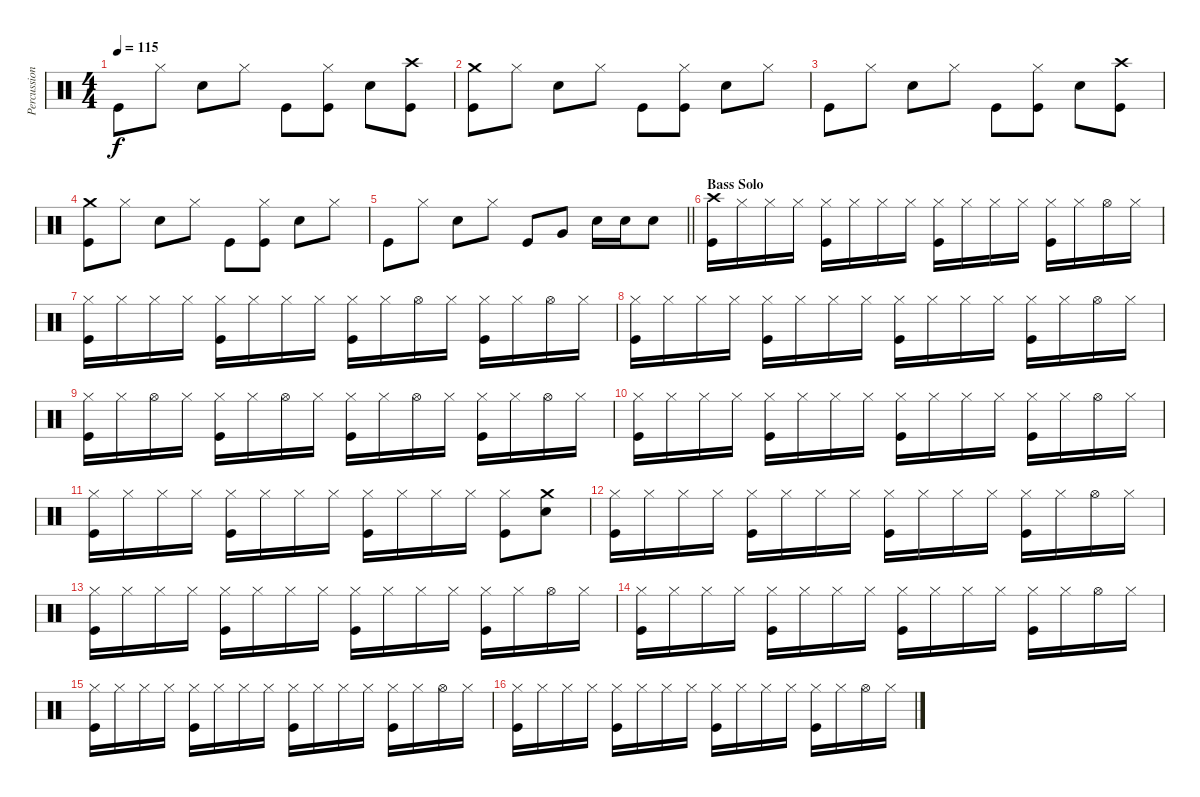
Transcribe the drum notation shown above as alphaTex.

\track ("Percussion" "Percussion") {instrument percussion}
\staff {score}
\articulation defaults
\ts (4 4)
\tempo 115
\clef neutral
\ks c "Kick (hit)".8{dy f} "Hi-Hat (closed)".8 "Snare (hit) 2".8 "Hi-Hat (closed)".8 "Kick (hit)".8
("Kick (hit)" "Hi-Hat (closed)").8 "Snare (hit) 2".8 ("Kick (hit)" "Crash high (hit)").8 |
("Crash medium (hit)" "Kick (hit)").8 "Hi-Hat (closed)".8 "Snare (hit) 2".8 "Hi-Hat (closed)".8 "Kick (hit)".8 ("Kick (hit)" "Hi-Hat (closed)").8 "Snare (hit) 2".8 "Hi-Hat (closed)".8 |
"Kick (hit)".8 "Hi-Hat (closed)".8 "Snare (hit) 2".8 "Hi-Hat (closed)".8 "Kick (hit)".8 ("Kick (hit)" "Hi-Hat (closed)").8 "Snare (hit) 2".8 ("Kick (hit)" "Crash high (hit)").8 |
("Crash medium (hit)" "Kick (hit)").8 "Hi-Hat (closed)".8 "Snare (hit) 2".8 "Hi-Hat (closed)".8 "Kick (hit)".8 ("Kick (hit)" "Hi-Hat (closed)").8 "Snare (hit) 2".8 "Hi-Hat (closed)".8 |
\barLineRight lightlight "Kick (hit)".8 "Hi-Hat (closed)".8 "Snare (hit) 2".8 "Hi-Hat (closed)".8 "Kick (hit)".8 "Very Low Tom (hit)".8 "Snare (hit) 2".16 "Snare (hit) 2".16 "Snare (hit) 2".8
|
\section ("" "Bass Solo")
("Kick (hit)" "Crash high (hit)").16 "Hi-Hat (closed)".16 "Hi-Hat (closed)".16 "Hi-Hat (closed)".16 ("Kick (hit)" "Hi-Hat (closed)").16 "Hi-Hat (closed)".16 "Hi-Hat (closed)".16 "Hi-Hat (closed)".16 ("Kick (hit)" "Hi-Hat (closed)").16 "Hi-Hat (closed)".16 "Hi-Hat (closed)".16 "Hi-Hat (closed)".16 ("Kick (hit)" "Hi-Hat (closed)").16 "Hi-Hat (closed)".16 "Hi-Hat (open)".16 "Hi-Hat (closed)".16 |
("Kick (hit)" "Hi-Hat (closed)").16 "Hi-Hat (closed)".16 "Hi-Hat (closed)".16 "Hi-Hat (closed)".16 ("Kick (hit)" "Hi-Hat (closed)").16 "Hi-Hat (closed)".16 "Hi-Hat (closed)".16 "Hi-Hat (closed)".16 ("Kick (hit)" "Hi-Hat (closed)").16 "Hi-Hat (closed)".16 "Hi-Hat (open)".16 "Hi-Hat (closed)".16 ("Kick (hit)" "Hi-Hat (closed)").16 "Hi-Hat (closed)".16 "Hi-Hat (open)".16 "Hi-Hat (closed)".16 |
("Kick (hit)" "Hi-Hat (closed)").16 "Hi-Hat (closed)".16 "Hi-Hat (closed)".16 "Hi-Hat (closed)".16 ("Kick (hit)" "Hi-Hat (closed)").16 "Hi-Hat (closed)".16 "Hi-Hat (closed)".16 "Hi-Hat (closed)".16 ("Kick (hit)" "Hi-Hat (closed)").16 "Hi-Hat (closed)".16 "Hi-Hat (closed)".16 "Hi-Hat (closed)".16 ("Kick (hit)" "Hi-Hat (closed)").16 "Hi-Hat (closed)".16 "Hi-Hat (open)".16 "Hi-Hat (closed)".16 |
("Kick (hit)" "Hi-Hat (closed)").16 "Hi-Hat (closed)".16 "Hi-Hat (open)".16 "Hi-Hat (closed)".16 ("Kick (hit)" "Hi-Hat (closed)").16 "Hi-Hat (closed)".16 "Hi-Hat (open)".16 "Hi-Hat (closed)".16 ("Kick (hit)" "Hi-Hat (closed)").16 "Hi-Hat (closed)".16 "Hi-Hat (open)".16 "Hi-Hat (closed)".16 ("Kick (hit)" "Hi-Hat (closed)").16 "Hi-Hat (closed)".16 "Hi-Hat (open)".16 "Hi-Hat (closed)".16 |
("Kick (hit)" "Hi-Hat (closed)").16 "Hi-Hat (closed)".16 "Hi-Hat (closed)".16 "Hi-Hat (closed)".16 ("Kick (hit)" "Hi-Hat (closed)").16 "Hi-Hat (closed)".16 "Hi-Hat (closed)".16 "Hi-Hat (closed)".16 ("Kick (hit)" "Hi-Hat (closed)").16 "Hi-Hat (closed)".16 "Hi-Hat (closed)".16 "Hi-Hat (closed)".16 ("Kick (hit)" "Hi-Hat (closed)").16 "Hi-Hat (closed)".16 "Hi-Hat (open)".16 "Hi-Hat (closed)".16 |
("Kick (hit)" "Hi-Hat (closed)").16 "Hi-Hat (closed)".16 "Hi-Hat (closed)".16 "Hi-Hat (closed)".16 ("Kick (hit)" "Hi-Hat (closed)").16 "Hi-Hat (closed)".16 "Hi-Hat (closed)".16 "Hi-Hat (closed)".16 ("Kick (hit)" "Hi-Hat (closed)").16 "Hi-Hat (closed)".16 "Hi-Hat (closed)".16 "Hi-Hat (closed)".16 ("Kick (hit)" "Hi-Hat (closed)").8 ("Crash medium (hit)" "Snare (hit) 2").8 |
("Kick (hit)" "Hi-Hat (closed)").16 "Hi-Hat (closed)".16 "Hi-Hat (closed)".16 "Hi-Hat (closed)".16 ("Kick (hit)" "Hi-Hat (closed)").16 "Hi-Hat (closed)".16 "Hi-Hat (closed)".16 "Hi-Hat (closed)".16 ("Kick (hit)" "Hi-Hat (closed)").16 "Hi-Hat (closed)".16 "Hi-Hat (closed)".16 "Hi-Hat (closed)".16 ("Kick (hit)" "Hi-Hat (closed)").16 "Hi-Hat (closed)".16 "Hi-Hat (open)".16 "Hi-Hat (closed)".16 |
("Kick (hit)" "Hi-Hat (closed)").16 "Hi-Hat (closed)".16 "Hi-Hat (closed)".16 "Hi-Hat (closed)".16 ("Kick (hit)" "Hi-Hat (closed)").16 "Hi-Hat (closed)".16 "Hi-Hat (closed)".16 "Hi-Hat (closed)".16 ("Kick (hit)" "Hi-Hat (closed)").16 "Hi-Hat (closed)".16 "Hi-Hat (closed)".16 "Hi-Hat (closed)".16 ("Kick (hit)" "Hi-Hat (closed)").16 "Hi-Hat (closed)".16 "Hi-Hat (open)".16 "Hi-Hat (closed)".16 |
("Kick (hit)" "Hi-Hat (closed)").16 "Hi-Hat (closed)".16 "Hi-Hat (closed)".16 "Hi-Hat (closed)".16 ("Kick (hit)" "Hi-Hat (closed)").16 "Hi-Hat (closed)".16 "Hi-Hat (closed)".16 "Hi-Hat (closed)".16 ("Kick (hit)" "Hi-Hat (closed)").16 "Hi-Hat (closed)".16 "Hi-Hat (closed)".16 "Hi-Hat (closed)".16 ("Kick (hit)" "Hi-Hat (closed)").16 "Hi-Hat (closed)".16 "Hi-Hat (open)".16 "Hi-Hat (closed)".16 |
("Kick (hit)" "Hi-Hat (closed)").16 "Hi-Hat (closed)".16 "Hi-Hat (closed)".16 "Hi-Hat (closed)".16 ("Kick (hit)" "Hi-Hat (closed)").16 "Hi-Hat (closed)".16 "Hi-Hat (closed)".16 "Hi-Hat (closed)".16 ("Kick (hit)" "Hi-Hat (closed)").16 "Hi-Hat (closed)".16 "Hi-Hat (closed)".16 "Hi-Hat (closed)".16 ("Kick (hit)" "Hi-Hat (closed)").16 "Hi-Hat (closed)".16 "Hi-Hat (open)".16 "Hi-Hat (closed)".16 |
("Kick (hit)" "Hi-Hat (closed)").16 "Hi-Hat (closed)".16 "Hi-Hat (closed)".16 "Hi-Hat (closed)".16 ("Kick (hit)" "Hi-Hat (closed)").16 "Hi-Hat (closed)".16 "Hi-Hat (closed)".16 "Hi-Hat (closed)".16 ("Kick (hit)" "Hi-Hat (closed)").16 "Hi-Hat (closed)".16 "Hi-Hat (closed)".16 "Hi-Hat (closed)".16 ("Kick (hit)" "Hi-Hat (closed)").16 "Hi-Hat (closed)".16 "Hi-Hat (open)".16 "Hi-Hat (closed)".16
